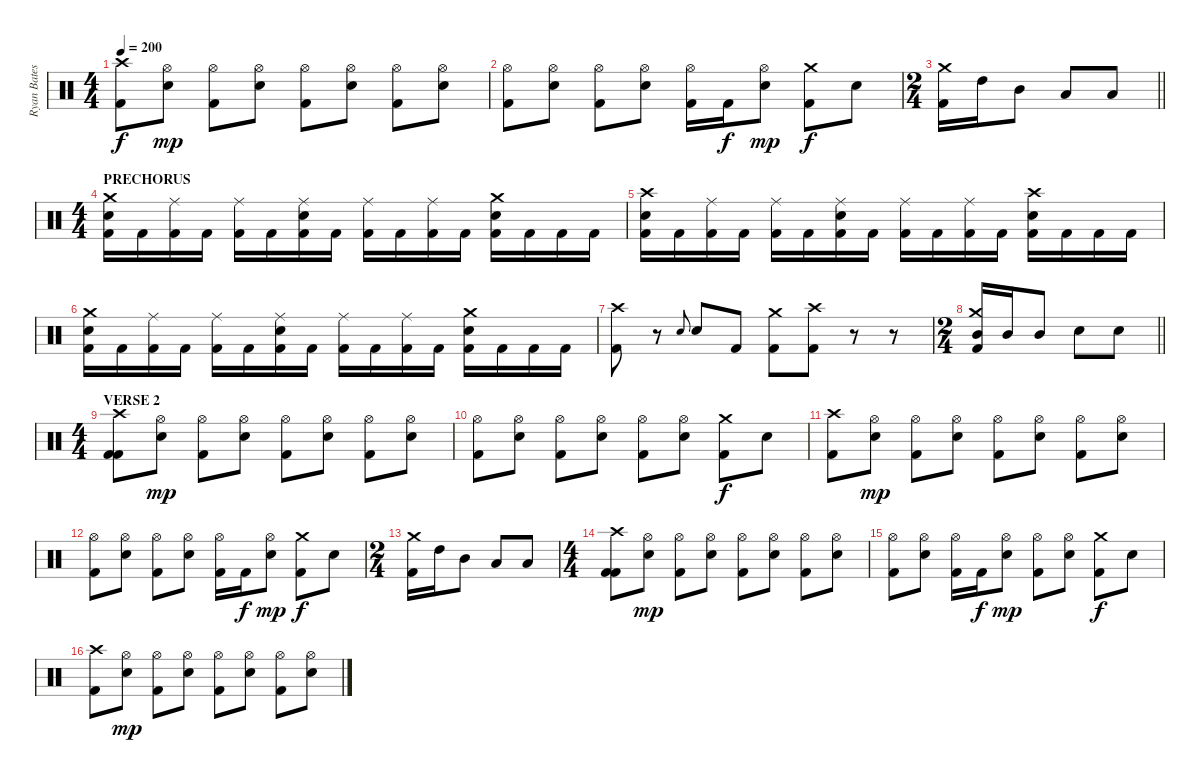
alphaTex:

\track ("Ryan Bates" "Ryan Bates") {instrument percussion}
\staff {score}
\articulation defaults
\ts (4 4)
\tempo 200
\clef neutral
\ks c
("Crash high (hit)" "Kick (hit) 2").8{dy f} ("Hi-Hat (open)" "Electric Snare (hit)").8{dy mp} ("Hi-Hat (open)" "Kick (hit) 2").8 ("Hi-Hat (open)" "Electric Snare (hit)").8 ("Hi-Hat (open)" "Kick (hit) 2").8 ("Hi-Hat (open)" "Electric Snare (hit)").8 ("Hi-Hat (open)" "Kick (hit) 2").8 ("Hi-Hat (open)" "Electric Snare (hit)").8 |
("Hi-Hat (open)" "Kick (hit) 2").8 ("Hi-Hat (open)" "Electric Snare (hit)").8 ("Hi-Hat (open)" "Kick (hit) 2").8 ("Hi-Hat (open)" "Electric Snare (hit)").8 ("Hi-Hat (open)" "Kick (hit) 2").16 "Kick (hit) 2".16{dy f} ("Hi-Hat (open)" "Electric Snare (hit)").8{dy mp} ("Crash medium (hit)" "Kick (hit) 2").8{dy f} "Electric Snare (hit)".8 |
\ts (2 4)
\barLineRight lightlight
("Crash medium (hit)" "Kick (hit) 2").16 "High Tom (hit)".16 "Mid Tom (hit)".8 "Low Tom (hit)".8 "Low Tom (hit)".8 |
\ts (4 4)
\section ("" "PRECHORUS")
("Crash medium (hit)" "Electric Snare (hit)" "Kick (hit) 2").16 "Kick (hit) 2".16 ("Ride (middle)" "Kick (hit) 2").16 "Kick (hit) 2".16 ("Ride (middle)" "Kick (hit) 2").16 "Kick (hit) 2".16 ("Ride (middle)" "Electric Snare (hit)" "Kick (hit) 2").16 "Kick (hit) 2".16 ("Ride (middle)" "Kick (hit) 2").16 "Kick (hit) 2".16 ("Ride (middle)" "Kick (hit) 2").16 "Kick (hit) 2".16 ("Crash medium (hit)" "Electric Snare (hit)" "Kick (hit) 2").16 "Kick (hit) 2".16 "Kick (hit) 2".16 "Kick (hit) 2".16 |
("Crash high (hit)" "Electric Snare (hit)" "Kick (hit) 2").16 "Kick (hit) 2".16 ("Ride (middle)" "Kick (hit) 2").16 "Kick (hit) 2".16 ("Ride (middle)" "Kick (hit) 2").16 "Kick (hit) 2".16 ("Ride (middle)" "Electric Snare (hit)" "Kick (hit) 2").16 "Kick (hit) 2".16 ("Ride (middle)" "Kick (hit) 2").16 "Kick (hit) 2".16 ("Ride (middle)" "Kick (hit) 2").16 "Kick (hit) 2".16 ("Crash high (hit)" "Electric Snare (hit)" "Kick (hit) 2").16 "Kick (hit) 2".16 "Kick (hit) 2".16 "Kick (hit) 2".16 |
("Crash medium (hit)" "Electric Snare (hit)" "Kick (hit) 2").16 "Kick (hit) 2".16 ("Ride (middle)" "Kick (hit) 2").16 "Kick (hit) 2".16 ("Ride (middle)" "Kick (hit) 2").16 "Kick (hit) 2".16 ("Ride (middle)" "Electric Snare (hit)" "Kick (hit) 2").16 "Kick (hit) 2".16 ("Ride (middle)" "Kick (hit) 2").16 "Kick (hit) 2".16 ("Ride (middle)" "Kick (hit) 2").16 "Kick (hit) 2".16 ("Crash medium (hit)" "Electric Snare (hit)" "Kick (hit) 2").16 "Kick (hit) 2".16 "Kick (hit) 2".16 "Kick (hit) 2".16 |
("Crash high (hit)" "Kick (hit) 2").8 r.8 "Electric Snare (hit)".8{gr onbeat} "Electric Snare (hit)".8 "Kick (hit) 2".8 ("Crash medium (hit)" "Kick (hit) 2").8 ("Crash high (hit)" "Kick (hit) 2").8 r.8 r.8 |
\ts (2 4)
\barLineRight lightlight
("Crash medium (hit)" "Mid Tom (hit)" "Kick (hit) 2").16 "Mid Tom (hit)".16 "Mid Tom (hit)".8 "Electric Snare (hit)".8 "Electric Snare (hit)".8 |
\ts (4 4)
\section ("" "VERSE 2")
("Crash high (hit)" "Kick (hit) 2" "Kick (hit) 2").8 ("Hi-Hat (open)" "Electric Snare (hit)").8{dy mp} ("Hi-Hat (open)" "Kick (hit) 2").8 ("Hi-Hat (open)" "Electric Snare (hit)").8 ("Hi-Hat (open)" "Kick (hit) 2").8 ("Hi-Hat (open)" "Electric Snare (hit)").8 ("Hi-Hat (open)" "Kick (hit) 2").8 ("Hi-Hat (open)" "Electric Snare (hit)").8 |
("Hi-Hat (open)" "Kick (hit) 2").8 ("Hi-Hat (open)" "Electric Snare (hit)").8 ("Hi-Hat (open)" "Kick (hit) 2").8 ("Hi-Hat (open)" "Electric Snare (hit)").8 ("Hi-Hat (open)" "Kick (hit) 2").8 ("Hi-Hat (open)" "Electric Snare (hit)").8 ("Crash medium (hit)" "Kick (hit) 2").8{dy f} "Electric Snare (hit)".8 |
("Crash high (hit)" "Kick (hit) 2").8 ("Hi-Hat (open)" "Electric Snare (hit)").8{dy mp} ("Hi-Hat (open)" "Kick (hit) 2").8 ("Hi-Hat (open)" "Electric Snare (hit)").8 ("Hi-Hat (open)" "Kick (hit) 2").8 ("Hi-Hat (open)" "Electric Snare (hit)").8 ("Hi-Hat (open)" "Kick (hit) 2").8 ("Hi-Hat (open)" "Electric Snare (hit)").8 |
("Hi-Hat (open)" "Kick (hit) 2").8 ("Hi-Hat (open)" "Electric Snare (hit)").8 ("Hi-Hat (open)" "Kick (hit) 2").8 ("Hi-Hat (open)" "Electric Snare (hit)").8 ("Hi-Hat (open)" "Kick (hit) 2").16 "Kick (hit) 2".16{dy f} ("Hi-Hat (open)" "Electric Snare (hit)").8{dy mp} ("Crash medium (hit)" "Kick (hit) 2").8{dy f} "Electric Snare (hit)".8 |
\ts (2 4)
("Crash medium (hit)" "Kick (hit) 2").16 "High Tom (hit)".16 "Mid Tom (hit)".8 "Low Tom (hit)".8 "Low Tom (hit)".8 |
\ts (4 4)
("Crash high (hit)" "Kick (hit) 2" "Kick (hit) 2").8 ("Hi-Hat (open)" "Electric Snare (hit)").8{dy mp} ("Hi-Hat (open)" "Kick (hit) 2").8 ("Hi-Hat (open)" "Electric Snare (hit)").8 ("Hi-Hat (open)" "Kick (hit) 2").8 ("Hi-Hat (open)" "Electric Snare (hit)").8 ("Hi-Hat (open)" "Kick (hit) 2").8 ("Hi-Hat (open)" "Electric Snare (hit)").8 |
("Hi-Hat (open)" "Kick (hit) 2").8 ("Hi-Hat (open)" "Electric Snare (hit)").8 ("Hi-Hat (open)" "Kick (hit) 2").16 "Kick (hit) 2".16{dy f} ("Hi-Hat (open)" "Electric Snare (hit)").8{dy mp} ("Hi-Hat (open)" "Kick (hit) 2").8 ("Hi-Hat (open)" "Electric Snare (hit)").8 ("Crash medium (hit)" "Kick (hit) 2").8{dy f} "Electric Snare (hit)".8 |
("Crash high (hit)" "Kick (hit) 2").8 ("Hi-Hat (open)" "Electric Snare (hit)").8{dy mp} ("Hi-Hat (open)" "Kick (hit) 2").8 ("Hi-Hat (open)" "Electric Snare (hit)").8 ("Hi-Hat (open)" "Kick (hit) 2").8 ("Hi-Hat (open)" "Electric Snare (hit)").8 ("Hi-Hat (open)" "Kick (hit) 2").8 ("Hi-Hat (open)" "Electric Snare (hit)").8
